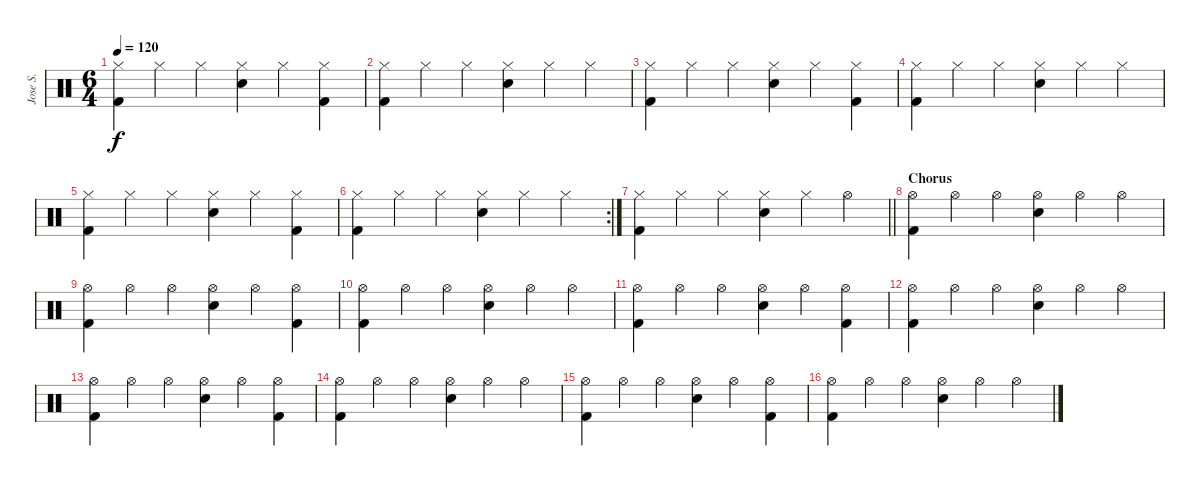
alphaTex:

\track ("Jose S." "Jose S.") {instrument percussion}
\staff {score}
\articulation defaults
\ts (6 4)
\tempo 120
\clef neutral
\ks c
("Hi-Hat (closed)" "Kick (hit) 2").4{dy f} "Hi-Hat (closed)".4 "Hi-Hat (closed)".4 ("Hi-Hat (closed)" "Snare (hit) 2").4 "Hi-Hat (closed)".4 ("Hi-Hat (closed)" "Kick (hit) 2").4 |
("Hi-Hat (closed)" "Kick (hit) 2").4 "Hi-Hat (closed)".4 "Hi-Hat (closed)".4 ("Hi-Hat (closed)" "Snare (hit) 2").4 "Hi-Hat (closed)".4 "Hi-Hat (closed)".4 |
("Hi-Hat (closed)" "Kick (hit) 2").4 "Hi-Hat (closed)".4 "Hi-Hat (closed)".4 ("Hi-Hat (closed)" "Snare (hit) 2").4 "Hi-Hat (closed)".4 ("Hi-Hat (closed)" "Kick (hit) 2").4 |
("Hi-Hat (closed)" "Kick (hit) 2").4 "Hi-Hat (closed)".4 "Hi-Hat (closed)".4 ("Hi-Hat (closed)" "Snare (hit) 2").4 "Hi-Hat (closed)".4 "Hi-Hat (closed)".4 |
("Hi-Hat (closed)" "Kick (hit) 2").4 "Hi-Hat (closed)".4 "Hi-Hat (closed)".4 ("Hi-Hat (closed)" "Snare (hit) 2").4 "Hi-Hat (closed)".4 ("Hi-Hat (closed)" "Kick (hit) 2").4 |
\rc 2
("Hi-Hat (closed)" "Kick (hit) 2").4 "Hi-Hat (closed)".4 "Hi-Hat (closed)".4 ("Hi-Hat (closed)" "Snare (hit) 2").4 "Hi-Hat (closed)".4 "Hi-Hat (closed)".4 |
\barLineRight lightlight
("Hi-Hat (closed)" "Kick (hit) 2").4 "Hi-Hat (closed)".4 "Hi-Hat (closed)".4 ("Hi-Hat (closed)" "Snare (hit) 2").4 "Hi-Hat (closed)".4 "Hi-Hat (open)".4 |
\section ("" "Chorus")
("Hi-Hat (open)" "Kick (hit) 2").4{volume 10} "Hi-Hat (open)".4 "Hi-Hat (open)".4 ("Hi-Hat (open)" "Snare (hit) 2").4 "Hi-Hat (open)".4 "Hi-Hat (open)".4 |
("Hi-Hat (open)" "Kick (hit) 2").4 "Hi-Hat (open)".4 "Hi-Hat (open)".4 ("Hi-Hat (open)" "Snare (hit) 2").4 "Hi-Hat (open)".4 ("Hi-Hat (open)" "Kick (hit) 2").4 |
("Hi-Hat (open)" "Kick (hit) 2").4 "Hi-Hat (open)".4 "Hi-Hat (open)".4 ("Hi-Hat (open)" "Snare (hit) 2").4 "Hi-Hat (open)".4 "Hi-Hat (open)".4 |
("Hi-Hat (open)" "Kick (hit) 2").4 "Hi-Hat (open)".4 "Hi-Hat (open)".4 ("Hi-Hat (open)" "Snare (hit) 2").4 "Hi-Hat (open)".4 ("Hi-Hat (open)" "Kick (hit) 2").4 |
("Hi-Hat (open)" "Kick (hit) 2").4 "Hi-Hat (open)".4 "Hi-Hat (open)".4 ("Hi-Hat (open)" "Snare (hit) 2").4 "Hi-Hat (open)".4 "Hi-Hat (open)".4 |
("Hi-Hat (open)" "Kick (hit) 2").4 "Hi-Hat (open)".4 "Hi-Hat (open)".4 ("Hi-Hat (open)" "Snare (hit) 2").4 "Hi-Hat (open)".4 ("Hi-Hat (open)" "Kick (hit) 2").4 |
("Hi-Hat (open)" "Kick (hit) 2").4 "Hi-Hat (open)".4 "Hi-Hat (open)".4 ("Hi-Hat (open)" "Snare (hit) 2").4 "Hi-Hat (open)".4 "Hi-Hat (open)".4 |
("Hi-Hat (open)" "Kick (hit) 2").4 "Hi-Hat (open)".4 "Hi-Hat (open)".4 ("Hi-Hat (open)" "Snare (hit) 2").4 "Hi-Hat (open)".4 ("Hi-Hat (open)" "Kick (hit) 2").4 |
("Hi-Hat (open)" "Kick (hit) 2").4 "Hi-Hat (open)".4 "Hi-Hat (open)".4 ("Hi-Hat (open)" "Snare (hit) 2").4 "Hi-Hat (open)".4 "Hi-Hat (open)".4
